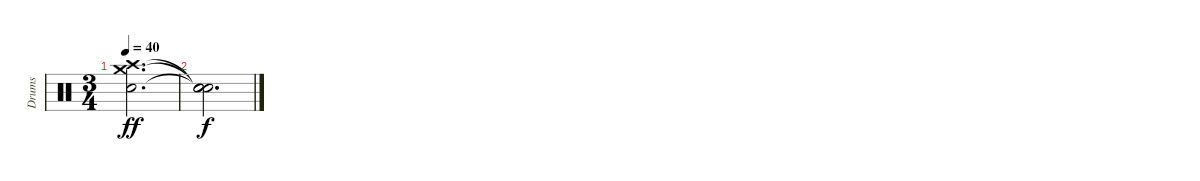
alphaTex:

\track ("Drums" "Drums") {instrument percussion}
\staff {score}
\articulation defaults
\ts (3 4)
\tempo 40
\clef neutral
\ks c
("Crash high (hit)" "Crash medium (hit)" "Snare (hit) 2").2{d dy ff} |
("Snare (hit)"{t} "Snare (hit)"{t} "Snare (hit)"{t}).2{d dy f}
